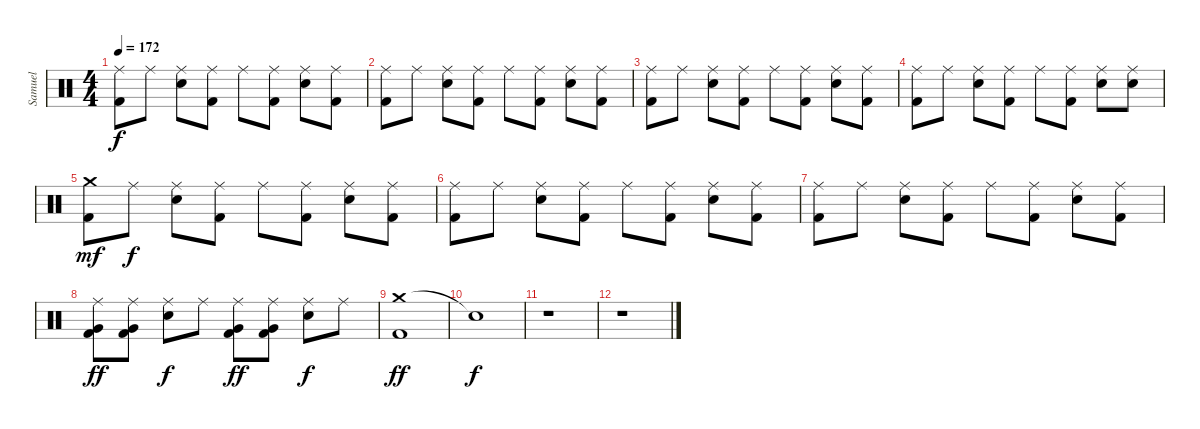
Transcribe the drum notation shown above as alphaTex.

\track ("Samuel" "Samuel") {instrument percussion}
\staff {score}
\articulation defaults
\ts (4 4)
\tempo 172
\clef neutral
\ks c
("Ride (middle)" "Kick (hit) 2").8{dy f} "Ride (middle)".8 ("Ride (middle)" "Snare (hit) 2").8 ("Ride (middle)" "Kick (hit) 2").8 "Ride (middle)".8 ("Ride (middle)" "Kick (hit) 2").8 ("Ride (middle)" "Snare (hit) 2").8 ("Ride (middle)" "Kick (hit) 2").8 |
("Ride (middle)" "Kick (hit) 2").8 "Ride (middle)".8 ("Ride (middle)" "Snare (hit) 2").8 ("Ride (middle)" "Kick (hit) 2").8 "Ride (middle)".8 ("Ride (middle)" "Kick (hit) 2").8 ("Ride (middle)" "Snare (hit) 2").8 ("Ride (middle)" "Kick (hit) 2").8 |
("Ride (middle)" "Kick (hit) 2").8 "Ride (middle)".8 ("Ride (middle)" "Snare (hit) 2").8 ("Ride (middle)" "Kick (hit) 2").8 "Ride (middle)".8 ("Ride (middle)" "Kick (hit) 2").8 ("Ride (middle)" "Snare (hit) 2").8 ("Ride (middle)" "Kick (hit) 2").8 |
("Ride (middle)" "Kick (hit) 2").8 "Ride (middle)".8 ("Ride (middle)" "Snare (hit) 2").8 ("Ride (middle)" "Kick (hit) 2").8 "Ride (middle)".8 ("Ride (middle)" "Kick (hit) 2").8 ("Ride (middle)" "Snare (hit) 2").8 ("Ride (middle)" "Snare (hit) 2").8 |
("Crash medium (hit)" "Kick (hit) 2").8{dy mf} "Ride (middle)".8{dy f} ("Ride (middle)" "Snare (hit) 2").8 ("Ride (middle)" "Kick (hit) 2").8 "Ride (middle)".8 ("Ride (middle)" "Kick (hit) 2").8 ("Ride (middle)" "Snare (hit) 2").8 ("Ride (middle)" "Kick (hit) 2").8 |
("Ride (middle)" "Kick (hit) 2").8 "Ride (middle)".8 ("Ride (middle)" "Snare (hit) 2").8 ("Ride (middle)" "Kick (hit) 2").8 "Ride (middle)".8 ("Ride (middle)" "Kick (hit) 2").8 ("Ride (middle)" "Snare (hit) 2").8 ("Ride (middle)" "Kick (hit) 2").8 |
("Ride (middle)" "Kick (hit) 2").8 "Ride (middle)".8 ("Ride (middle)" "Snare (hit) 2").8 ("Ride (middle)" "Kick (hit) 2").8 "Ride (middle)".8 ("Ride (middle)" "Kick (hit) 2").8 ("Ride (middle)" "Snare (hit) 2").8 ("Ride (middle)" "Kick (hit) 2").8 |
("Ride (middle)" "Very Low Tom (hit)" "Kick (hit) 2").8{dy ff} ("Ride (middle)" "Very Low Tom (hit)" "Kick (hit) 2").8 ("Ride (middle)" "Snare (hit) 2").8{dy f} "Ride (middle)".8 ("Ride (middle)" "Very Low Tom (hit)" "Kick (hit) 2").8{dy ff} ("Ride (middle)" "Very Low Tom (hit)" "Kick (hit) 2").8 ("Ride (middle)" "Snare (hit) 2").8{dy f} "Ride (middle)".8 |
("Crash medium (hit)" "Kick (hit) 2").1{dy ff} |
"Snare (hit)"{t}.1{dy f} |
r.1 |
r.1
